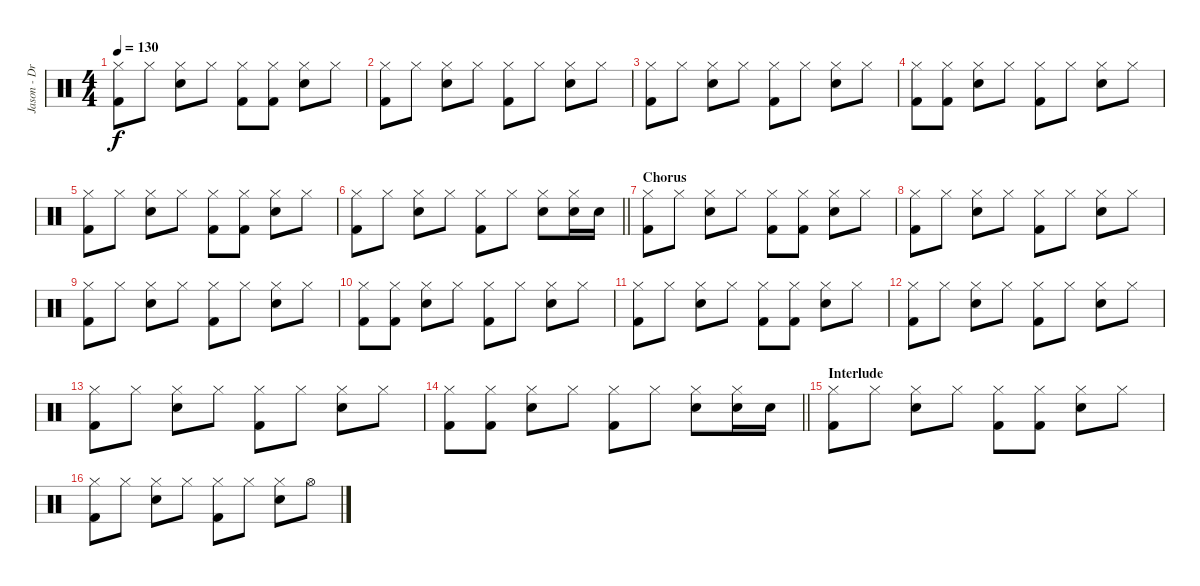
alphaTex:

\track ("Jason - Drums" "Jason - Dr") {instrument percussion}
\staff {score}
\articulation defaults
\ts (4 4)
\tempo 130
\clef neutral
\ks c
("Hi-Hat (closed)" "Kick (hit) 2").8{dy f} "Hi-Hat (closed)".8 ("Hi-Hat (closed)" "Snare (hit) 2").8 "Hi-Hat (closed)".8 ("Hi-Hat (closed)" "Kick (hit) 2").8 ("Hi-Hat (closed)" "Kick (hit) 2").8 ("Hi-Hat (closed)" "Snare (hit) 2").8 "Hi-Hat (closed)".8 |
("Hi-Hat (closed)" "Kick (hit) 2").8 "Hi-Hat (closed)".8 ("Hi-Hat (closed)" "Snare (hit) 2").8 "Hi-Hat (closed)".8 ("Hi-Hat (closed)" "Kick (hit) 2").8 "Hi-Hat (closed)".8 ("Hi-Hat (closed)" "Snare (hit) 2").8 "Hi-Hat (closed)".8 |
("Hi-Hat (closed)" "Kick (hit) 2").8 "Hi-Hat (closed)".8 ("Hi-Hat (closed)" "Snare (hit) 2").8 "Hi-Hat (closed)".8 ("Hi-Hat (closed)" "Kick (hit) 2").8 "Hi-Hat (closed)".8 ("Hi-Hat (closed)" "Snare (hit) 2").8 "Hi-Hat (closed)".8 |
("Hi-Hat (closed)" "Kick (hit) 2").8 ("Hi-Hat (closed)" "Kick (hit) 2").8 ("Hi-Hat (closed)" "Snare (hit) 2").8 "Hi-Hat (closed)".8 ("Hi-Hat (closed)" "Kick (hit) 2").8 "Hi-Hat (closed)".8 ("Hi-Hat (closed)" "Snare (hit) 2").8 "Hi-Hat (closed)".8 |
("Hi-Hat (closed)" "Kick (hit) 2").8 "Hi-Hat (closed)".8 ("Hi-Hat (closed)" "Snare (hit) 2").8 "Hi-Hat (closed)".8 ("Hi-Hat (closed)" "Kick (hit) 2").8 ("Hi-Hat (closed)" "Kick (hit) 2").8 ("Hi-Hat (closed)" "Snare (hit) 2").8 "Hi-Hat (closed)".8 |
\barLineRight lightlight
("Hi-Hat (closed)" "Kick (hit) 2").8 "Hi-Hat (closed)".8 ("Hi-Hat (closed)" "Snare (hit) 2").8 "Hi-Hat (closed)".8 ("Hi-Hat (closed)" "Kick (hit) 2").8 "Hi-Hat (closed)".8 ("Hi-Hat (closed)" "Snare (hit) 2").8 ("Hi-Hat (closed)" "Snare (hit) 2").16 "Snare (hit) 2".16 |
\section ("" "Chorus")
("Hi-Hat (closed)" "Kick (hit) 2").8 "Hi-Hat (closed)".8 ("Hi-Hat (closed)" "Snare (hit) 2").8 "Hi-Hat (closed)".8 ("Hi-Hat (closed)" "Kick (hit) 2").8 ("Hi-Hat (closed)" "Kick (hit) 2").8 ("Hi-Hat (closed)" "Snare (hit) 2").8 "Hi-Hat (closed)".8 |
("Hi-Hat (closed)" "Kick (hit) 2").8 "Hi-Hat (closed)".8 ("Hi-Hat (closed)" "Snare (hit) 2").8 "Hi-Hat (closed)".8 ("Hi-Hat (closed)" "Kick (hit) 2").8 "Hi-Hat (closed)".8 ("Hi-Hat (closed)" "Snare (hit) 2").8 "Hi-Hat (closed)".8 |
("Hi-Hat (closed)" "Kick (hit) 2").8 "Hi-Hat (closed)".8 ("Hi-Hat (closed)" "Snare (hit) 2").8 "Hi-Hat (closed)".8 ("Hi-Hat (closed)" "Kick (hit) 2").8 "Hi-Hat (closed)".8 ("Hi-Hat (closed)" "Snare (hit) 2").8 "Hi-Hat (closed)".8 |
("Hi-Hat (closed)" "Kick (hit) 2").8 ("Hi-Hat (closed)" "Kick (hit) 2").8 ("Hi-Hat (closed)" "Snare (hit) 2").8 "Hi-Hat (closed)".8 ("Hi-Hat (closed)" "Kick (hit) 2").8 "Hi-Hat (closed)".8 ("Hi-Hat (closed)" "Snare (hit) 2").8 "Hi-Hat (closed)".8 |
("Hi-Hat (closed)" "Kick (hit) 2").8 "Hi-Hat (closed)".8 ("Hi-Hat (closed)" "Snare (hit) 2").8 "Hi-Hat (closed)".8 ("Hi-Hat (closed)" "Kick (hit) 2").8 ("Hi-Hat (closed)" "Kick (hit) 2").8 ("Hi-Hat (closed)" "Snare (hit) 2").8 "Hi-Hat (closed)".8 |
("Hi-Hat (closed)" "Kick (hit) 2").8 "Hi-Hat (closed)".8 ("Hi-Hat (closed)" "Snare (hit) 2").8 "Hi-Hat (closed)".8 ("Hi-Hat (closed)" "Kick (hit) 2").8 "Hi-Hat (closed)".8 ("Hi-Hat (closed)" "Snare (hit) 2").8 "Hi-Hat (closed)".8 |
("Hi-Hat (closed)" "Kick (hit) 2").8 "Hi-Hat (closed)".8 ("Hi-Hat (closed)" "Snare (hit) 2").8 "Hi-Hat (closed)".8 ("Hi-Hat (closed)" "Kick (hit) 2").8 "Hi-Hat (closed)".8 ("Hi-Hat (closed)" "Snare (hit) 2").8 "Hi-Hat (closed)".8 |
\barLineRight lightlight
("Hi-Hat (closed)" "Kick (hit) 2").8 ("Hi-Hat (closed)" "Kick (hit) 2").8 ("Hi-Hat (closed)" "Snare (hit) 2").8 "Hi-Hat (closed)".8 ("Hi-Hat (closed)" "Kick (hit) 2").8 "Hi-Hat (closed)".8 ("Hi-Hat (closed)" "Snare (hit) 2").8 ("Hi-Hat (closed)" "Snare (hit) 2").16 "Snare (hit) 2".16 |
\section ("" "Interlude")
("Hi-Hat (closed)" "Kick (hit) 2").8 "Hi-Hat (closed)".8 ("Hi-Hat (closed)" "Snare (hit) 2").8 "Hi-Hat (closed)".8 ("Hi-Hat (closed)" "Kick (hit) 2").8 ("Hi-Hat (closed)" "Kick (hit) 2").8 ("Hi-Hat (closed)" "Snare (hit) 2").8 "Hi-Hat (closed)".8 |
("Hi-Hat (closed)" "Kick (hit) 2").8 "Hi-Hat (closed)".8 ("Hi-Hat (closed)" "Snare (hit) 2").8 "Hi-Hat (closed)".8 ("Hi-Hat (closed)" "Kick (hit) 2").8 "Hi-Hat (closed)".8 ("Hi-Hat (closed)" "Snare (hit) 2").8 "Hi-Hat (open)".8
